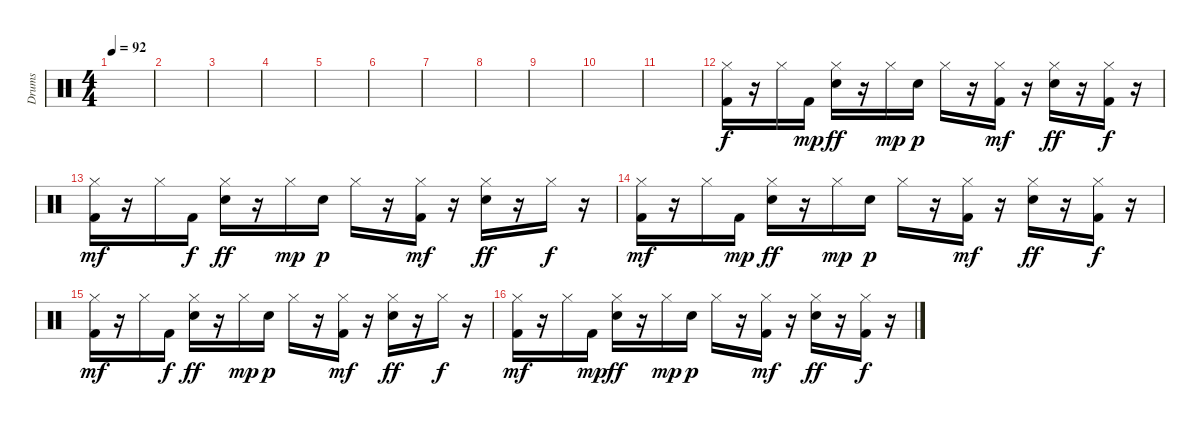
\track ("Drums" "Drums") {instrument percussion}
\staff {score}
\articulation defaults
\ts (4 4)
\tempo 92
\clef neutral
\ks c
|
|
|
|
|
|
|
|
|
|
|
("Hi-Hat (closed)" "Kick (hit) 2").16 r.16 "Hi-Hat (closed)".16 "Kick (hit) 2".16{dy mp} ("Hi-Hat (closed)" "Snare (hit) 2").16{dy ff} r.16 "Hi-Hat (closed)".16{dy mp} "Snare (hit) 2".16{dy p} "Hi-Hat (closed)".16 r.16 ("Hi-Hat (closed)" "Kick (hit) 2").16{dy mf} r.16 ("Hi-Hat (closed)" "Snare (hit) 2").16{dy ff} r.16 ("Hi-Hat (closed)" "Kick (hit) 2").16{dy f} r.16 |
("Hi-Hat (closed)" "Kick (hit) 2").16{dy mf} r.16 "Hi-Hat (closed)".16 "Kick (hit) 2".16{dy f} ("Hi-Hat (closed)" "Snare (hit) 2").16{dy ff} r.16 "Hi-Hat (closed)".16{dy mp} "Snare (hit) 2".16{dy p} "Hi-Hat (closed)".16 r.16 ("Hi-Hat (closed)" "Kick (hit) 2").16{dy mf} r.16 ("Hi-Hat (closed)" "Snare (hit) 2").16{dy ff} r.16 "Hi-Hat (closed)".16{dy f} r.16 |
("Hi-Hat (closed)" "Kick (hit) 2").16{dy mf} r.16 "Hi-Hat (closed)".16 "Kick (hit) 2".16{dy mp} ("Hi-Hat (closed)" "Snare (hit) 2").16{dy ff} r.16 "Hi-Hat (closed)".16{dy mp} "Snare (hit) 2".16{dy p} "Hi-Hat (closed)".16 r.16 ("Hi-Hat (closed)" "Kick (hit) 2").16{dy mf} r.16 ("Hi-Hat (closed)" "Snare (hit) 2").16{dy ff} r.16 ("Hi-Hat (closed)" "Kick (hit) 2").16{dy f} r.16 |
("Hi-Hat (closed)" "Kick (hit) 2").16{dy mf} r.16 "Hi-Hat (closed)".16 "Kick (hit) 2".16{dy f} ("Hi-Hat (closed)" "Snare (hit) 2").16{dy ff} r.16 "Hi-Hat (closed)".16{dy mp} "Snare (hit) 2".16{dy p} "Hi-Hat (closed)".16 r.16 ("Hi-Hat (closed)" "Kick (hit) 2").16{dy mf} r.16 ("Hi-Hat (closed)" "Snare (hit) 2").16{dy ff} r.16 "Hi-Hat (closed)".16{dy f} r.16 |
("Hi-Hat (closed)" "Kick (hit) 2").16{dy mf} r.16 "Hi-Hat (closed)".16 "Kick (hit) 2".16{dy mp} ("Hi-Hat (closed)" "Snare (hit) 2").16{dy ff} r.16 "Hi-Hat (closed)".16{dy mp} "Snare (hit) 2".16{dy p} "Hi-Hat (closed)".16 r.16 ("Hi-Hat (closed)" "Kick (hit) 2").16{dy mf} r.16 ("Hi-Hat (closed)" "Snare (hit) 2").16{dy ff} r.16 ("Hi-Hat (closed)" "Kick (hit) 2").16{dy f} r.16
